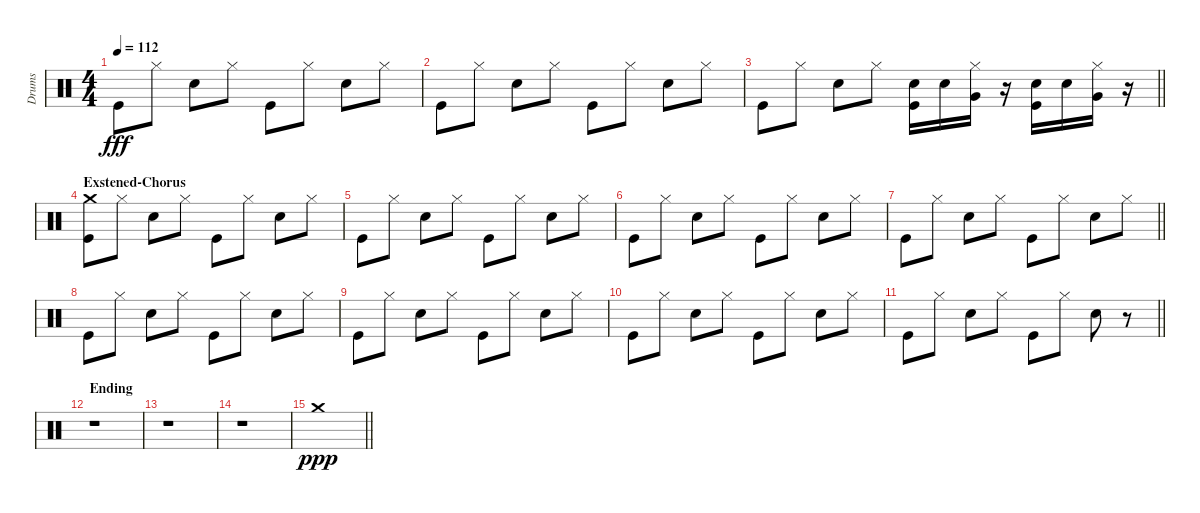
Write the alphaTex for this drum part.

\track ("Drums" "Drums") {instrument percussion}
\staff {score}
\articulation defaults
\ts (4 4)
\tempo 112
\clef neutral
\ks c "Kick (hit)".8{dy fff} "Hi-Hat (closed)".8 "Snare (hit) 2".8 "Hi-Hat (closed)".8 "Kick (hit)".8 "Hi-Hat (closed)".8 "Snare (hit) 2".8 "Hi-Hat (closed)".8
|
"Kick (hit)".8 "Hi-Hat (closed)".8 "Snare (hit) 2".8 "Hi-Hat (closed)".8 "Kick (hit)".8 "Hi-Hat (closed)".8 "Snare (hit) 2".8 "Hi-Hat (closed)".8 |
\barLineRight lightlight "Kick (hit)".8 "Hi-Hat (closed)".8 "Snare (hit) 2".8 "Hi-Hat (closed)".8
("Snare (hit) 2" "Kick (hit)").16 "Snare (hit) 2".16 ("Hi-Hat (closed)" "Very Low Tom (hit)").16 r.16 ("Snare (hit) 2" "Kick (hit)").16 "Snare (hit) 2".16 ("Hi-Hat (closed)" "Very Low Tom (hit)").16 r.16 |
\section ("" "Exstened-Chorus")
("Crash medium (hit)" "Kick (hit)").8 "Hi-Hat (closed)".8 "Snare (hit) 2".8 "Hi-Hat (closed)".8 "Kick (hit)".8 "Hi-Hat (closed)".8 "Snare (hit) 2".8 "Hi-Hat (closed)".8 |
"Kick (hit)".8 "Hi-Hat (closed)".8 "Snare (hit) 2".8 "Hi-Hat (closed)".8 "Kick (hit)".8 "Hi-Hat (closed)".8 "Snare (hit) 2".8 "Hi-Hat (closed)".8 |
"Kick (hit)".8 "Hi-Hat (closed)".8 "Snare (hit) 2".8 "Hi-Hat (closed)".8 "Kick (hit)".8 "Hi-Hat (closed)".8 "Snare (hit) 2".8 "Hi-Hat (closed)".8 |
\barLineRight lightlight "Kick (hit)".8 "Hi-Hat (closed)".8 "Snare (hit) 2".8 "Hi-Hat (closed)".8 "Kick (hit)".8 "Hi-Hat (closed)".8 "Snare (hit) 2".8 "Hi-Hat (closed)".8
|
"Kick (hit)".8 "Hi-Hat (closed)".8 "Snare (hit) 2".8 "Hi-Hat (closed)".8 "Kick (hit)".8 "Hi-Hat (closed)".8 "Snare (hit) 2".8 "Hi-Hat (closed)".8 |
"Kick (hit)".8 "Hi-Hat (closed)".8 "Snare (hit) 2".8 "Hi-Hat (closed)".8 "Kick (hit)".8 "Hi-Hat (closed)".8 "Snare (hit) 2".8 "Hi-Hat (closed)".8 |
"Kick (hit)".8 "Hi-Hat (closed)".8 "Snare (hit) 2".8 "Hi-Hat (closed)".8 "Kick (hit)".8 "Hi-Hat (closed)".8 "Snare (hit) 2".8 "Hi-Hat (closed)".8 |
\barLineRight lightlight "Kick (hit)".8 "Hi-Hat (closed)".8 "Snare (hit) 2".8 "Hi-Hat (closed)".8 "Kick (hit)".8 "Hi-Hat (closed)".8 "Snare (hit) 2".8
r.8 |
\section ("" "Ending")
r.1 |
r.1 |
r.1 |
\barLineRight lightlight "Crash medium (hit)".1{dy ppp}
